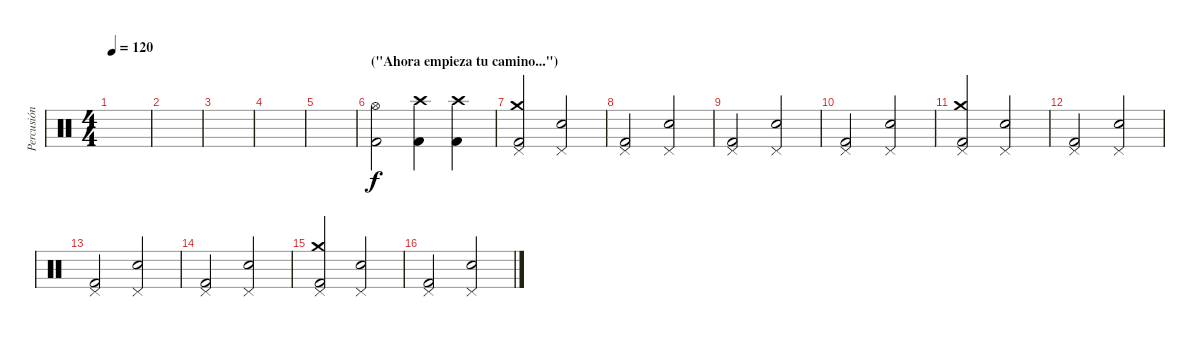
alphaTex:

\track ("Percusión" "Percusión") {instrument percussion}
\staff {score}
\articulation defaults
\ts (4 4)
\tempo 120
\clef neutral
\ks c
|
|
|
|
|
\section ("" "(\"Ahora empieza tu camino...\")")
("Hi-Hat (open)" "Kick (hit) 2").2 ("Crash high (hit)" "Kick (hit) 2").4 ("Crash high (hit)" "Kick (hit) 2").4 |
("Crash medium (hit)" "Pedal Hi-Hat (hit)" "Kick (hit) 2").2 ("Pedal Hi-Hat (hit)" "Snare (hit) 2").2 |
("Pedal Hi-Hat (hit)" "Kick (hit) 2").2 ("Pedal Hi-Hat (hit)" "Snare (hit) 2").2 |
("Pedal Hi-Hat (hit)" "Kick (hit) 2").2 ("Pedal Hi-Hat (hit)" "Snare (hit) 2").2 |
("Pedal Hi-Hat (hit)" "Kick (hit) 2").2 ("Pedal Hi-Hat (hit)" "Snare (hit) 2").2 |
("Crash medium (hit)" "Pedal Hi-Hat (hit)" "Kick (hit) 2").2 ("Pedal Hi-Hat (hit)" "Snare (hit) 2").2 |
("Pedal Hi-Hat (hit)" "Kick (hit) 2").2 ("Pedal Hi-Hat (hit)" "Snare (hit) 2").2 |
("Pedal Hi-Hat (hit)" "Kick (hit) 2").2 ("Pedal Hi-Hat (hit)" "Snare (hit) 2").2 |
("Pedal Hi-Hat (hit)" "Kick (hit) 2").2 ("Pedal Hi-Hat (hit)" "Snare (hit) 2").2 |
("Crash medium (hit)" "Pedal Hi-Hat (hit)" "Kick (hit) 2").2 ("Pedal Hi-Hat (hit)" "Snare (hit) 2").2 |
("Pedal Hi-Hat (hit)" "Kick (hit) 2").2 ("Pedal Hi-Hat (hit)" "Snare (hit) 2").2
